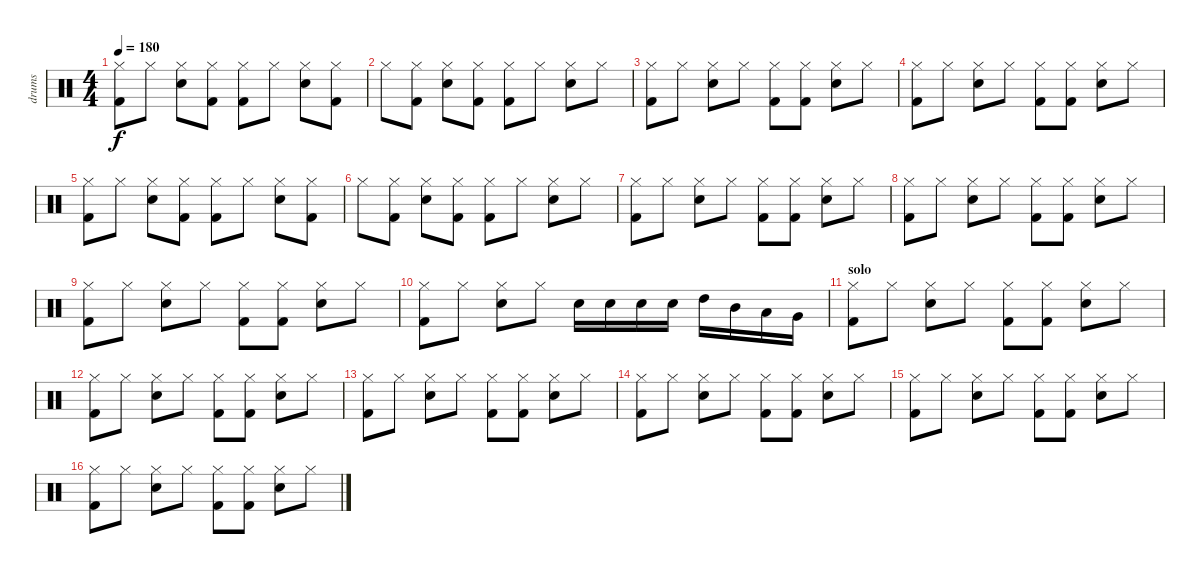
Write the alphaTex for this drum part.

\track ("drums" "drums") {instrument percussion}
\staff {score}
\articulation defaults
\ts (4 4)
\tempo 180
\clef neutral
\ks c
("Hi-Hat (closed)" "Kick (hit) 2").8{dy f} "Hi-Hat (closed)".8 ("Hi-Hat (closed)" "Snare (hit) 2").8 ("Hi-Hat (closed)" "Kick (hit) 2").8 ("Hi-Hat (closed)" "Kick (hit) 2").8 "Hi-Hat (closed)".8 ("Hi-Hat (closed)" "Snare (hit) 2").8 ("Hi-Hat (closed)" "Kick (hit) 2").8 |
"Hi-Hat (closed)".8 ("Hi-Hat (closed)" "Kick (hit) 2").8 ("Hi-Hat (closed)" "Snare (hit) 2").8 ("Hi-Hat (closed)" "Kick (hit) 2").8 ("Hi-Hat (closed)" "Kick (hit) 2").8 "Hi-Hat (closed)".8 ("Hi-Hat (closed)" "Snare (hit) 2").8 "Hi-Hat (closed)".8 |
("Hi-Hat (closed)" "Kick (hit) 2").8 "Hi-Hat (closed)".8 ("Hi-Hat (closed)" "Snare (hit) 2").8 "Hi-Hat (closed)".8 ("Hi-Hat (closed)" "Kick (hit) 2").8 ("Hi-Hat (closed)" "Kick (hit) 2").8 ("Hi-Hat (closed)" "Snare (hit) 2").8 "Hi-Hat (closed)".8 |
("Hi-Hat (closed)" "Kick (hit) 2").8 "Hi-Hat (closed)".8 ("Hi-Hat (closed)" "Snare (hit) 2").8 "Hi-Hat (closed)".8 ("Hi-Hat (closed)" "Kick (hit) 2").8 ("Hi-Hat (closed)" "Kick (hit) 2").8 ("Hi-Hat (closed)" "Snare (hit) 2").8 "Hi-Hat (closed)".8 |
("Hi-Hat (closed)" "Kick (hit) 2").8 "Hi-Hat (closed)".8 ("Hi-Hat (closed)" "Snare (hit) 2").8 ("Hi-Hat (closed)" "Kick (hit) 2").8 ("Hi-Hat (closed)" "Kick (hit) 2").8 "Hi-Hat (closed)".8 ("Hi-Hat (closed)" "Snare (hit) 2").8 ("Hi-Hat (closed)" "Kick (hit) 2").8 |
"Hi-Hat (closed)".8 ("Hi-Hat (closed)" "Kick (hit) 2").8 ("Hi-Hat (closed)" "Snare (hit) 2").8 ("Hi-Hat (closed)" "Kick (hit) 2").8 ("Hi-Hat (closed)" "Kick (hit) 2").8 "Hi-Hat (closed)".8 ("Hi-Hat (closed)" "Snare (hit) 2").8 "Hi-Hat (closed)".8 |
("Hi-Hat (closed)" "Kick (hit) 2").8 "Hi-Hat (closed)".8 ("Hi-Hat (closed)" "Snare (hit) 2").8 "Hi-Hat (closed)".8 ("Hi-Hat (closed)" "Kick (hit) 2").8 ("Hi-Hat (closed)" "Kick (hit) 2").8 ("Hi-Hat (closed)" "Snare (hit) 2").8 "Hi-Hat (closed)".8 |
("Hi-Hat (closed)" "Kick (hit) 2").8 "Hi-Hat (closed)".8 ("Hi-Hat (closed)" "Snare (hit) 2").8 "Hi-Hat (closed)".8 ("Hi-Hat (closed)" "Kick (hit) 2").8 ("Hi-Hat (closed)" "Kick (hit) 2").8 ("Hi-Hat (closed)" "Snare (hit) 2").8 "Hi-Hat (closed)".8 |
("Hi-Hat (closed)" "Kick (hit) 2").8 "Hi-Hat (closed)".8 ("Hi-Hat (closed)" "Snare (hit) 2").8 "Hi-Hat (closed)".8 ("Hi-Hat (closed)" "Kick (hit) 2").8 ("Hi-Hat (closed)" "Kick (hit) 2").8 ("Hi-Hat (closed)" "Snare (hit) 2").8 "Hi-Hat (closed)".8 |
("Hi-Hat (closed)" "Kick (hit) 2").8 "Hi-Hat (closed)".8 ("Hi-Hat (closed)" "Snare (hit) 2").8 "Hi-Hat (closed)".8 "Snare (hit) 2".16 "Snare (hit) 2".16 "Snare (hit) 2".16 "Snare (hit) 2".16 "High Tom (hit)".16 "Mid Tom (hit)".16 "Low Tom (hit)".16 "Very Low Tom (hit)".16 |
\section ("" "solo")
("Hi-Hat (closed)" "Kick (hit) 2").8 "Hi-Hat (closed)".8 ("Hi-Hat (closed)" "Snare (hit) 2").8 "Hi-Hat (closed)".8 ("Hi-Hat (closed)" "Kick (hit) 2").8 ("Hi-Hat (closed)" "Kick (hit) 2").8 ("Hi-Hat (closed)" "Snare (hit) 2").8 "Hi-Hat (closed)".8 |
("Hi-Hat (closed)" "Kick (hit) 2").8 "Hi-Hat (closed)".8 ("Hi-Hat (closed)" "Snare (hit) 2").8 "Hi-Hat (closed)".8 ("Hi-Hat (closed)" "Kick (hit) 2").8 ("Hi-Hat (closed)" "Kick (hit) 2").8 ("Hi-Hat (closed)" "Snare (hit) 2").8 "Hi-Hat (closed)".8 |
("Hi-Hat (closed)" "Kick (hit) 2").8 "Hi-Hat (closed)".8 ("Hi-Hat (closed)" "Snare (hit) 2").8 "Hi-Hat (closed)".8 ("Hi-Hat (closed)" "Kick (hit) 2").8 ("Hi-Hat (closed)" "Kick (hit) 2").8 ("Hi-Hat (closed)" "Snare (hit) 2").8 "Hi-Hat (closed)".8 |
("Hi-Hat (closed)" "Kick (hit) 2").8 "Hi-Hat (closed)".8 ("Hi-Hat (closed)" "Snare (hit) 2").8 "Hi-Hat (closed)".8 ("Hi-Hat (closed)" "Kick (hit) 2").8 ("Hi-Hat (closed)" "Kick (hit) 2").8 ("Hi-Hat (closed)" "Snare (hit) 2").8 "Hi-Hat (closed)".8 |
("Hi-Hat (closed)" "Kick (hit) 2").8 "Hi-Hat (closed)".8 ("Hi-Hat (closed)" "Snare (hit) 2").8 "Hi-Hat (closed)".8 ("Hi-Hat (closed)" "Kick (hit) 2").8 ("Hi-Hat (closed)" "Kick (hit) 2").8 ("Hi-Hat (closed)" "Snare (hit) 2").8 "Hi-Hat (closed)".8 |
("Hi-Hat (closed)" "Kick (hit) 2").8 "Hi-Hat (closed)".8 ("Hi-Hat (closed)" "Snare (hit) 2").8 "Hi-Hat (closed)".8 ("Hi-Hat (closed)" "Kick (hit) 2").8 ("Hi-Hat (closed)" "Kick (hit) 2").8 ("Hi-Hat (closed)" "Snare (hit) 2").8 "Hi-Hat (closed)".8
